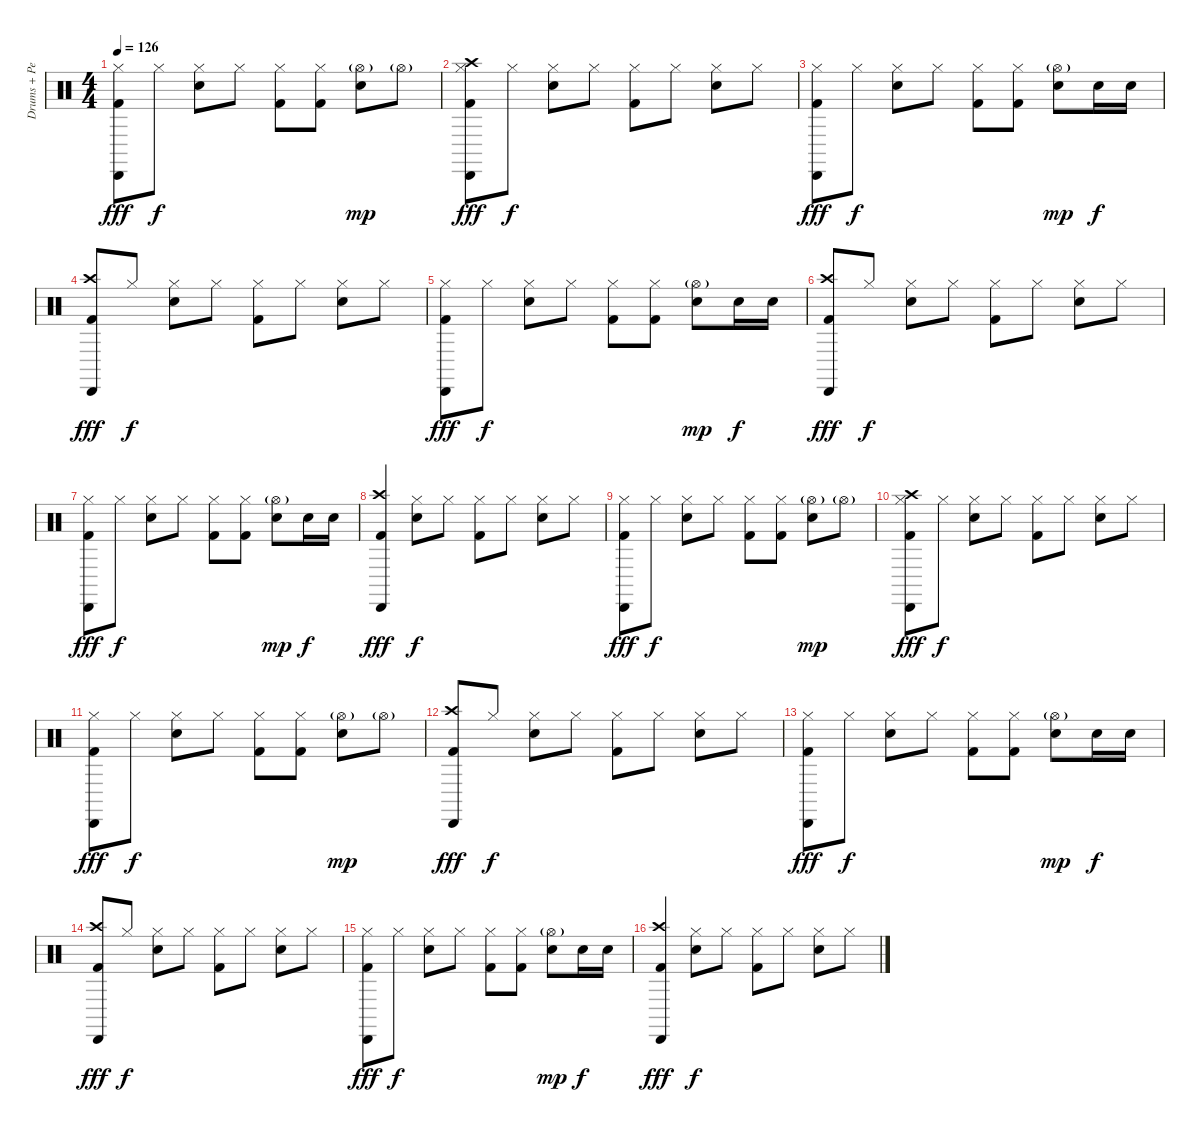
\track ("Drums + Percussions" "Drums + Pe") {instrument percussion}
\staff {score}
\articulation defaults
\ts (4 4)
\tempo 126
\clef neutral
\ks c
("Hi-Hat (closed)" "Cabasa (hit)" "Kick (hit) 2").8{dy fff} "Hi-Hat (closed)".8{dy f} ("Hi-Hat (closed)" "Electric Snare (hit)").8 "Hi-Hat (closed)".8 ("Hi-Hat (closed)" "Kick (hit) 2").8 ("Hi-Hat (closed)" "Kick (hit) 2").8 ("Hi-Hat (open)"{g} "Electric Snare (hit)").8{dy mp} "Hi-Hat (open)"{g}.8 |
("Crash high (hit)" "Hi-Hat (closed)" "Cabasa (hit)" "Kick (hit) 2").8{dy fff} "Hi-Hat (closed)".8{dy f} ("Hi-Hat (closed)" "Electric Snare (hit)").8 "Hi-Hat (closed)".8 ("Hi-Hat (closed)" "Kick (hit) 2").8 "Hi-Hat (closed)".8 ("Hi-Hat (closed)" "Electric Snare (hit)").8 "Hi-Hat (closed)".8 |
("Hi-Hat (closed)" "Cabasa (hit)" "Kick (hit) 2").8{dy fff} "Hi-Hat (closed)".8{dy f} ("Hi-Hat (closed)" "Electric Snare (hit)").8 "Hi-Hat (closed)".8 ("Hi-Hat (closed)" "Kick (hit) 2").8 ("Hi-Hat (closed)" "Kick (hit) 2").8 ("Hi-Hat (open)"{g} "Electric Snare (hit)").8{dy mp} "Electric Snare (hit)".16{dy f} "Electric Snare (hit)".16 |
("Crash high (hit)" "Cabasa (hit)" "Kick (hit) 2").8{dy fff} "Hi-Hat (closed)".8{dy f} ("Hi-Hat (closed)" "Electric Snare (hit)").8 "Hi-Hat (closed)".8 ("Hi-Hat (closed)" "Kick (hit) 2").8 "Hi-Hat (closed)".8 ("Hi-Hat (closed)" "Electric Snare (hit)").8 "Hi-Hat (closed)".8 |
("Hi-Hat (closed)" "Cabasa (hit)" "Kick (hit) 2").8{dy fff} "Hi-Hat (closed)".8{dy f} ("Hi-Hat (closed)" "Electric Snare (hit)").8 "Hi-Hat (closed)".8 ("Hi-Hat (closed)" "Kick (hit) 2").8 ("Hi-Hat (closed)" "Kick (hit) 2").8 ("Hi-Hat (open)"{g} "Electric Snare (hit)").8{dy mp} "Electric Snare (hit)".16{dy f} "Electric Snare (hit)".16 |
("Crash high (hit)" "Cabasa (hit)" "Kick (hit) 2").8{dy fff} "Hi-Hat (closed)".8{dy f} ("Hi-Hat (closed)" "Electric Snare (hit)").8 "Hi-Hat (closed)".8 ("Hi-Hat (closed)" "Kick (hit) 2").8 "Hi-Hat (closed)".8 ("Hi-Hat (closed)" "Electric Snare (hit)").8 "Hi-Hat (closed)".8 |
("Hi-Hat (closed)" "Cabasa (hit)" "Kick (hit) 2").8{dy fff} "Hi-Hat (closed)".8{dy f} ("Hi-Hat (closed)" "Electric Snare (hit)").8 "Hi-Hat (closed)".8 ("Hi-Hat (closed)" "Kick (hit) 2").8 ("Hi-Hat (closed)" "Kick (hit) 2").8 ("Hi-Hat (open)"{g} "Electric Snare (hit)").8{dy mp} "Electric Snare (hit)".16{dy f} "Electric Snare (hit)".16 |
("Crash high (hit)" "Cabasa (hit)" "Kick (hit) 2").4{dy fff} ("Hi-Hat (closed)" "Electric Snare (hit)").8{dy f} "Hi-Hat (closed)".8 ("Hi-Hat (closed)" "Kick (hit) 2").8 "Hi-Hat (closed)".8 ("Hi-Hat (closed)" "Electric Snare (hit)").8 "Hi-Hat (closed)".8 |
("Hi-Hat (closed)" "Cabasa (hit)" "Kick (hit) 2").8{dy fff} "Hi-Hat (closed)".8{dy f} ("Hi-Hat (closed)" "Electric Snare (hit)").8 "Hi-Hat (closed)".8 ("Hi-Hat (closed)" "Kick (hit) 2").8 ("Hi-Hat (closed)" "Kick (hit) 2").8 ("Hi-Hat (open)"{g} "Electric Snare (hit)").8{dy mp} "Hi-Hat (open)"{g}.8 |
("Crash high (hit)" "Hi-Hat (closed)" "Cabasa (hit)" "Kick (hit) 2").8{dy fff} "Hi-Hat (closed)".8{dy f} ("Hi-Hat (closed)" "Electric Snare (hit)").8 "Hi-Hat (closed)".8 ("Hi-Hat (closed)" "Kick (hit) 2").8 "Hi-Hat (closed)".8 ("Hi-Hat (closed)" "Electric Snare (hit)").8 "Hi-Hat (closed)".8 |
("Hi-Hat (closed)" "Cabasa (hit)" "Kick (hit) 2").8{dy fff} "Hi-Hat (closed)".8{dy f} ("Hi-Hat (closed)" "Electric Snare (hit)").8 "Hi-Hat (closed)".8 ("Hi-Hat (closed)" "Kick (hit) 2").8 ("Hi-Hat (closed)" "Kick (hit) 2").8 ("Hi-Hat (open)"{g} "Electric Snare (hit)").8{dy mp} "Hi-Hat (open)"{g}.8 |
("Crash high (hit)" "Cabasa (hit)" "Kick (hit) 2").8{dy fff} "Hi-Hat (closed)".8{dy f} ("Hi-Hat (closed)" "Electric Snare (hit)").8 "Hi-Hat (closed)".8 ("Hi-Hat (closed)" "Kick (hit) 2").8 "Hi-Hat (closed)".8 ("Hi-Hat (closed)" "Electric Snare (hit)").8 "Hi-Hat (closed)".8 |
("Hi-Hat (closed)" "Cabasa (hit)" "Kick (hit) 2").8{dy fff} "Hi-Hat (closed)".8{dy f} ("Hi-Hat (closed)" "Electric Snare (hit)").8 "Hi-Hat (closed)".8 ("Hi-Hat (closed)" "Kick (hit) 2").8 ("Hi-Hat (closed)" "Kick (hit) 2").8 ("Hi-Hat (open)"{g} "Electric Snare (hit)").8{dy mp} "Electric Snare (hit)".16{dy f} "Electric Snare (hit)".16 |
("Crash high (hit)" "Cabasa (hit)" "Kick (hit) 2").8{dy fff} "Hi-Hat (closed)".8{dy f} ("Hi-Hat (closed)" "Electric Snare (hit)").8 "Hi-Hat (closed)".8 ("Hi-Hat (closed)" "Kick (hit) 2").8 "Hi-Hat (closed)".8 ("Hi-Hat (closed)" "Electric Snare (hit)").8 "Hi-Hat (closed)".8 |
("Hi-Hat (closed)" "Cabasa (hit)" "Kick (hit) 2").8{dy fff} "Hi-Hat (closed)".8{dy f} ("Hi-Hat (closed)" "Electric Snare (hit)").8 "Hi-Hat (closed)".8 ("Hi-Hat (closed)" "Kick (hit) 2").8 ("Hi-Hat (closed)" "Kick (hit) 2").8 ("Hi-Hat (open)"{g} "Electric Snare (hit)").8{dy mp} "Electric Snare (hit)".16{dy f} "Electric Snare (hit)".16 |
("Crash high (hit)" "Cabasa (hit)" "Kick (hit) 2").4{dy fff} ("Hi-Hat (closed)" "Electric Snare (hit)").8{dy f} "Hi-Hat (closed)".8 ("Hi-Hat (closed)" "Kick (hit) 2").8 "Hi-Hat (closed)".8 ("Hi-Hat (closed)" "Electric Snare (hit)").8 "Hi-Hat (closed)".8
